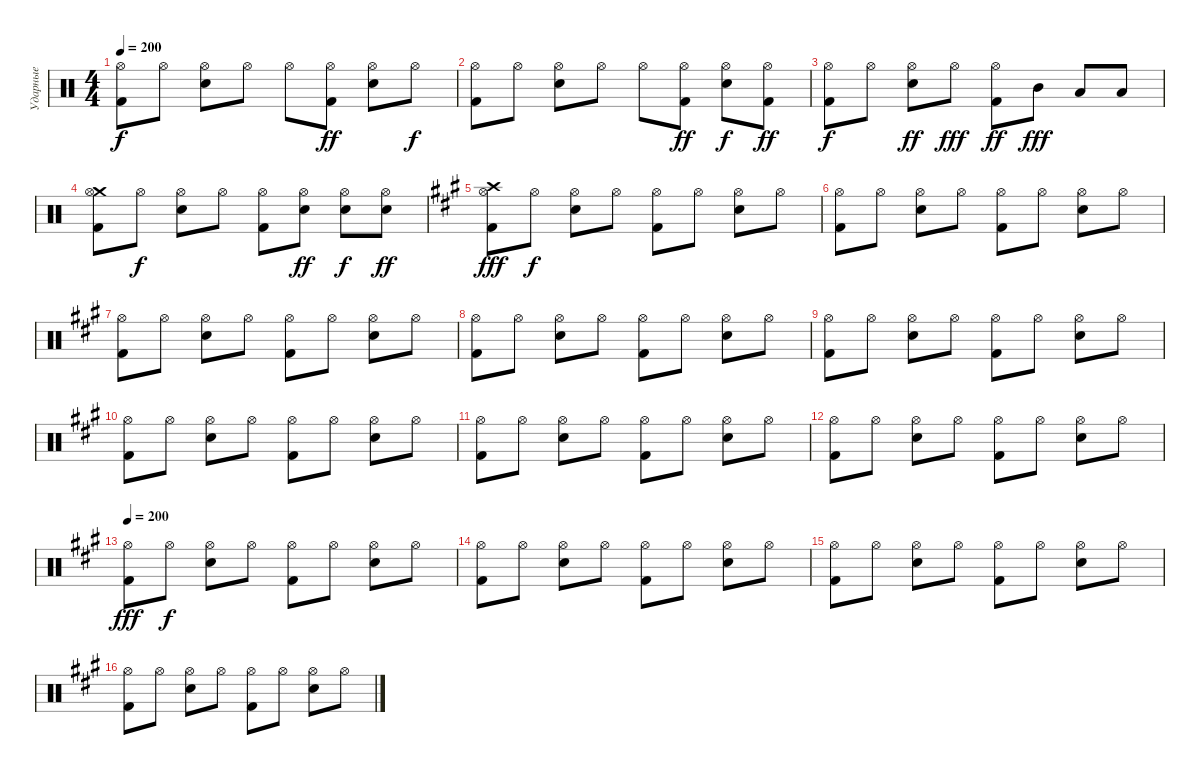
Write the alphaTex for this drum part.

\track ("Ударные" "Ударные") {instrument percussion}
\staff {score}
\articulation defaults
\ts (4 4)
\tempo 200
\clef neutral
\ks c
("Hi-Hat (open)" "Kick (hit) 2").8{dy f} "Hi-Hat (open)".8 ("Hi-Hat (open)" "Electric Snare (hit)").8 "Hi-Hat (open)".8 "Hi-Hat (open)".8 ("Hi-Hat (open)" "Kick (hit) 2").8{dy ff} ("Hi-Hat (open)" "Electric Snare (hit)").8 "Hi-Hat (open)".8{dy f} |
("Hi-Hat (open)" "Kick (hit) 2").8 "Hi-Hat (open)".8 ("Hi-Hat (open)" "Electric Snare (hit)").8 "Hi-Hat (open)".8 "Hi-Hat (open)".8 ("Hi-Hat (open)" "Kick (hit) 2").8{dy ff} ("Hi-Hat (open)" "Electric Snare (hit)").8{dy f} ("Hi-Hat (open)" "Kick (hit) 2").8{dy ff} |
("Hi-Hat (open)" "Kick (hit) 2").8{dy f} "Hi-Hat (open)".8 ("Hi-Hat (open)" "Electric Snare (hit)").8{dy ff} "Hi-Hat (open)".8{dy fff} ("Hi-Hat (open)" "Kick (hit) 2").8{dy ff} "Mid Tom (hit)".8{dy fff} "Low Tom (hit)".8 "Low Tom (hit)".8 |
("Crash medium (hit)" "Hi-Hat (open)" "Kick (hit) 2").8 "Hi-Hat (open)".8{dy f} ("Hi-Hat (open)" "Electric Snare (hit)").8 "Hi-Hat (open)".8 ("Hi-Hat (open)" "Kick (hit) 2").8 ("Hi-Hat (open)" "Electric Snare (hit)").8{dy ff} ("Hi-Hat (open)" "Electric Snare (hit)").8{dy f} ("Hi-Hat (open)" "Electric Snare (hit)").8{dy ff} |
\ks f#minor
("Crash high (hit)" "Hi-Hat (open)" "Kick (hit) 2").8{dy fff} "Hi-Hat (open)".8{dy f} ("Hi-Hat (open)" "Electric Snare (hit)").8 "Hi-Hat (open)".8 ("Hi-Hat (open)" "Kick (hit) 2").8 "Hi-Hat (open)".8 ("Hi-Hat (open)" "Electric Snare (hit)").8 "Hi-Hat (open)".8 |
("Hi-Hat (open)" "Kick (hit) 2").8 "Hi-Hat (open)".8 ("Hi-Hat (open)" "Electric Snare (hit)").8 "Hi-Hat (open)".8 ("Hi-Hat (open)" "Kick (hit) 2").8 "Hi-Hat (open)".8 ("Hi-Hat (open)" "Electric Snare (hit)").8 "Hi-Hat (open)".8 |
("Hi-Hat (open)" "Kick (hit) 2").8 "Hi-Hat (open)".8 ("Hi-Hat (open)" "Electric Snare (hit)").8 "Hi-Hat (open)".8 ("Hi-Hat (open)" "Kick (hit) 2").8 "Hi-Hat (open)".8 ("Hi-Hat (open)" "Electric Snare (hit)").8 "Hi-Hat (open)".8 |
("Hi-Hat (open)" "Kick (hit) 2").8 "Hi-Hat (open)".8 ("Hi-Hat (open)" "Electric Snare (hit)").8 "Hi-Hat (open)".8 ("Hi-Hat (open)" "Kick (hit) 2").8 "Hi-Hat (open)".8 ("Hi-Hat (open)" "Electric Snare (hit)").8 "Hi-Hat (open)".8 |
("Hi-Hat (open)" "Kick (hit) 2").8 "Hi-Hat (open)".8 ("Hi-Hat (open)" "Electric Snare (hit)").8 "Hi-Hat (open)".8 ("Hi-Hat (open)" "Kick (hit) 2").8 "Hi-Hat (open)".8 ("Hi-Hat (open)" "Electric Snare (hit)").8 "Hi-Hat (open)".8 |
("Hi-Hat (open)" "Kick (hit) 2").8 "Hi-Hat (open)".8 ("Hi-Hat (open)" "Electric Snare (hit)").8 "Hi-Hat (open)".8 ("Hi-Hat (open)" "Kick (hit) 2").8 "Hi-Hat (open)".8 ("Hi-Hat (open)" "Electric Snare (hit)").8 "Hi-Hat (open)".8 |
("Hi-Hat (open)" "Kick (hit) 2").8 "Hi-Hat (open)".8 ("Hi-Hat (open)" "Electric Snare (hit)").8 "Hi-Hat (open)".8 ("Hi-Hat (open)" "Kick (hit) 2").8 "Hi-Hat (open)".8 ("Hi-Hat (open)" "Electric Snare (hit)").8 "Hi-Hat (open)".8 |
("Hi-Hat (open)" "Kick (hit) 2").8 "Hi-Hat (open)".8 ("Hi-Hat (open)" "Electric Snare (hit)").8 "Hi-Hat (open)".8 ("Hi-Hat (open)" "Kick (hit) 2").8 "Hi-Hat (open)".8 ("Hi-Hat (open)" "Electric Snare (hit)").8 "Hi-Hat (open)".8 |
\tempo 200
("Hi-Hat (open)" "Kick (hit) 2").8{dy fff} "Hi-Hat (open)".8{dy f} ("Hi-Hat (open)" "Electric Snare (hit)").8 "Hi-Hat (open)".8 ("Hi-Hat (open)" "Kick (hit) 2").8 "Hi-Hat (open)".8 ("Hi-Hat (open)" "Electric Snare (hit)").8 "Hi-Hat (open)".8 |
("Hi-Hat (open)" "Kick (hit) 2").8 "Hi-Hat (open)".8 ("Hi-Hat (open)" "Electric Snare (hit)").8 "Hi-Hat (open)".8 ("Hi-Hat (open)" "Kick (hit) 2").8 "Hi-Hat (open)".8 ("Hi-Hat (open)" "Electric Snare (hit)").8 "Hi-Hat (open)".8 |
("Hi-Hat (open)" "Kick (hit) 2").8 "Hi-Hat (open)".8 ("Hi-Hat (open)" "Electric Snare (hit)").8 "Hi-Hat (open)".8 ("Hi-Hat (open)" "Kick (hit) 2").8 "Hi-Hat (open)".8 ("Hi-Hat (open)" "Electric Snare (hit)").8 "Hi-Hat (open)".8 |
("Hi-Hat (open)" "Kick (hit) 2").8 "Hi-Hat (open)".8 ("Hi-Hat (open)" "Electric Snare (hit)").8 "Hi-Hat (open)".8 ("Hi-Hat (open)" "Kick (hit) 2").8 "Hi-Hat (open)".8 ("Hi-Hat (open)" "Electric Snare (hit)").8 "Hi-Hat (open)".8
